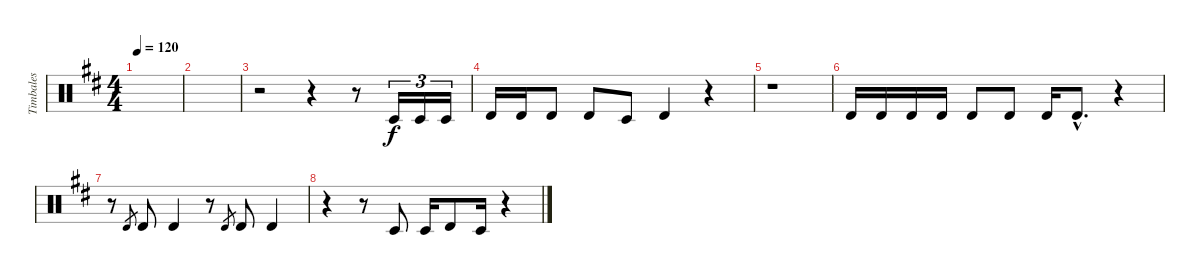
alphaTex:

\track ("Timbales" "Timbales") {instrument percussion}
\staff {score}
\articulation defaults
\ts (4 4)
\tempo 120
\clef neutral
\ks d
|
|
r.2 r.4 r.8 "Timbale low (hit)".16{tu (3 2) balance 16} "Timbale low (hit)".16{tu (3 2)} "Timbale low (hit)".16{tu (3 2)} |
"Timbale high (hit)".16 "Timbale high (hit)".16 "Timbale high (hit)".8 "Timbale high (hit)".8 "Timbale low (hit)".8 "Timbale high (hit)".4 r.4 |
r.1 |
"Timbale high (hit)".16 "Timbale high (hit)".16 "Timbale high (hit)".16 "Timbale high (hit)".16 "Timbale high (hit)".8 "Timbale high (hit)".8 "Timbale high (hit)".16 "Timbale high (hit)"{hac}.8{d} r.4 |
r.8 "Timbale high (hit)".8{gr} "Timbale high (hit)".8 "Timbale high (hit)".4 r.8 "Timbale high (hit)".8{gr} "Timbale high (hit)".8 "Timbale high (hit)".4 |
r.4 r.8 "Timbale low (hit)".8 "Timbale low (hit)".16 "Timbale high (hit)".8 "Timbale low (hit)".16 r.4
